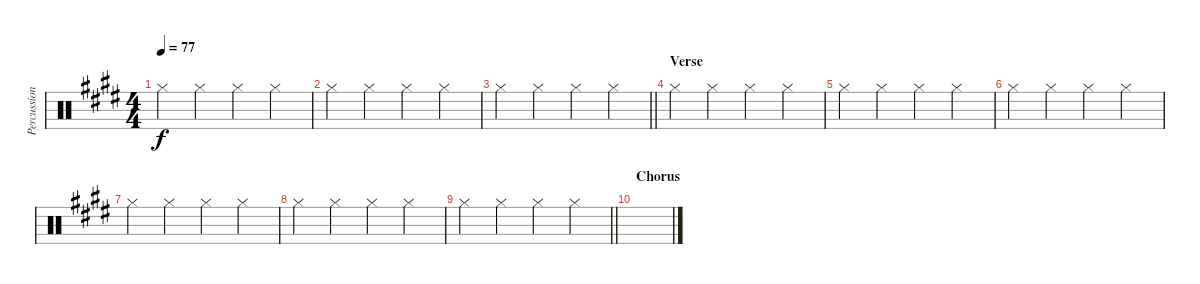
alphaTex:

\track ("Percussion" "Percussion") {instrument percussion}
\staff {score}
\articulation defaults
\ts (4 4)
\tempo 77
\clef neutral
\ks c#minor "Hi-Hat (closed)".4{dy f} "Hi-Hat (closed)".4 "Hi-Hat (closed)".4 "Hi-Hat (closed)".4
|
"Hi-Hat (closed)".4 "Hi-Hat (closed)".4 "Hi-Hat (closed)".4 "Hi-Hat (closed)".4 |
\barLineRight lightlight "Hi-Hat (closed)".4 "Hi-Hat (closed)".4 "Hi-Hat (closed)".4 "Hi-Hat (closed)".4
|
\section ("" "Verse")
"Hi-Hat (closed)".4 "Hi-Hat (closed)".4 "Hi-Hat (closed)".4 "Hi-Hat (closed)".4 |
"Hi-Hat (closed)".4 "Hi-Hat (closed)".4 "Hi-Hat (closed)".4 "Hi-Hat (closed)".4 |
"Hi-Hat (closed)".4 "Hi-Hat (closed)".4 "Hi-Hat (closed)".4 "Hi-Hat (closed)".4 |
"Hi-Hat (closed)".4 "Hi-Hat (closed)".4 "Hi-Hat (closed)".4 "Hi-Hat (closed)".4 |
"Hi-Hat (closed)".4 "Hi-Hat (closed)".4 "Hi-Hat (closed)".4 "Hi-Hat (closed)".4 |
\barLineRight lightlight "Hi-Hat (closed)".4 "Hi-Hat (closed)".4 "Hi-Hat (closed)".4 "Hi-Hat (closed)".4
|
\section ("" "Chorus ")
